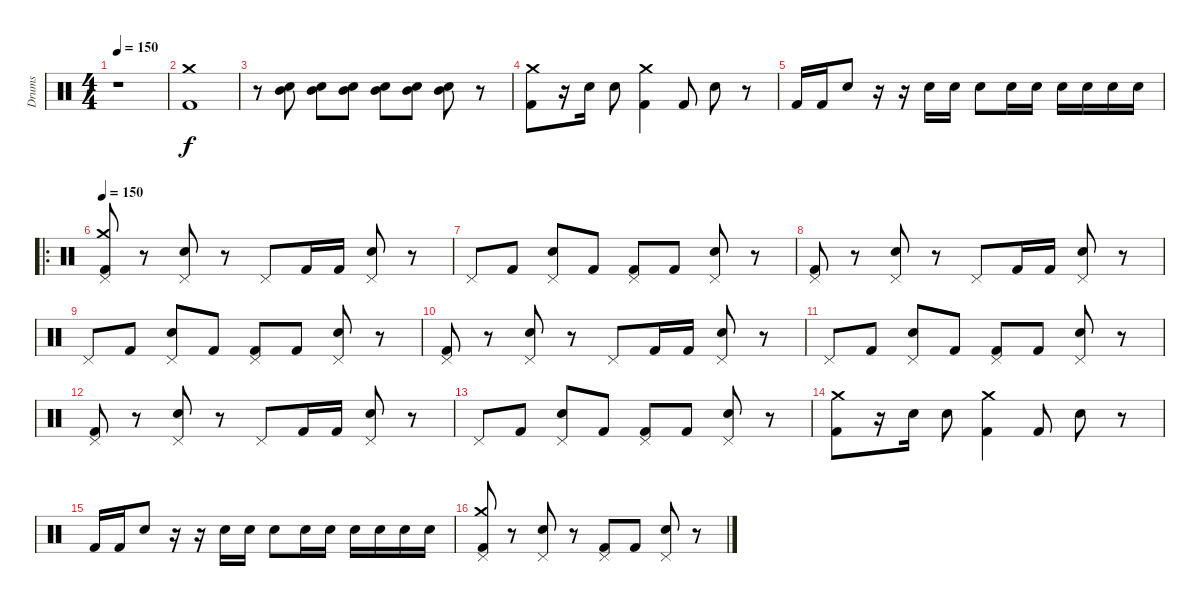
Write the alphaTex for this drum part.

\track ("Drums" "Drums") {instrument percussion}
\staff {score}
\articulation defaults
\ts (4 4)
\tempo 150
\clef neutral
\ks c
r.1{dy f} |
("Kick (hit) 2" "Crash medium (hit)").1 |
r.8 ("Mid Tom (hit)" "Electric Snare (hit)").8 ("Mid Tom (hit)" "Electric Snare (hit)").8 ("Mid Tom (hit)" "Electric Snare (hit)").8 ("Mid Tom (hit)" "Electric Snare (hit)").8 ("Mid Tom (hit)" "Electric Snare (hit)").8 ("Mid Tom (hit)" "Electric Snare (hit)").8 r.8 |
("Kick (hit) 2" "Crash medium (hit)").8 r.16 "Electric Snare (hit)".16 "Electric Snare (hit)".8 ("Kick (hit) 2" "Crash medium (hit)").4 "Kick (hit) 2".8 "Electric Snare (hit)".8 r.8 |
"Kick (hit) 2".16 "Kick (hit) 2".16 "Electric Snare (hit)".8 r.16 r.16 "Electric Snare (hit)".16 "Electric Snare (hit)".16 "Electric Snare (hit)".8 "Electric Snare (hit)".16 "Electric Snare (hit)".16 "Electric Snare (hit)".16 "Electric Snare (hit)".16 "Electric Snare (hit)".16 "Electric Snare (hit)".16 |
\ro
\tempo 150
("Kick (hit) 2" "Pedal Hi-Hat (hit)" "Crash medium (hit)").8 r.8 ("Pedal Hi-Hat (hit)" "Electric Snare (hit)").8 r.8 "Pedal Hi-Hat (hit)".8 "Kick (hit) 2".16 "Kick (hit) 2".16 ("Pedal Hi-Hat (hit)" "Electric Snare (hit)").8 r.8 |
"Pedal Hi-Hat (hit)".8 "Kick (hit) 2".8 ("Pedal Hi-Hat (hit)" "Electric Snare (hit)").8 "Kick (hit) 2".8 ("Kick (hit) 2" "Pedal Hi-Hat (hit)").8 "Kick (hit) 2".8 ("Pedal Hi-Hat (hit)" "Electric Snare (hit)").8 r.8 |
("Kick (hit) 2" "Pedal Hi-Hat (hit)").8 r.8 ("Pedal Hi-Hat (hit)" "Electric Snare (hit)").8 r.8 "Pedal Hi-Hat (hit)".8 "Kick (hit) 2".16 "Kick (hit) 2".16 ("Pedal Hi-Hat (hit)" "Electric Snare (hit)").8 r.8 |
"Pedal Hi-Hat (hit)".8 "Kick (hit) 2".8 ("Pedal Hi-Hat (hit)" "Electric Snare (hit)").8 "Kick (hit) 2".8 ("Kick (hit) 2" "Pedal Hi-Hat (hit)").8 "Kick (hit) 2".8 ("Pedal Hi-Hat (hit)" "Electric Snare (hit)").8 r.8 |
("Kick (hit) 2" "Pedal Hi-Hat (hit)").8 r.8 ("Pedal Hi-Hat (hit)" "Electric Snare (hit)").8 r.8 "Pedal Hi-Hat (hit)".8 "Kick (hit) 2".16 "Kick (hit) 2".16 ("Pedal Hi-Hat (hit)" "Electric Snare (hit)").8 r.8 |
"Pedal Hi-Hat (hit)".8 "Kick (hit) 2".8 ("Pedal Hi-Hat (hit)" "Electric Snare (hit)").8 "Kick (hit) 2".8 ("Kick (hit) 2" "Pedal Hi-Hat (hit)").8 "Kick (hit) 2".8 ("Pedal Hi-Hat (hit)" "Electric Snare (hit)").8 r.8 |
("Kick (hit) 2" "Pedal Hi-Hat (hit)").8 r.8 ("Pedal Hi-Hat (hit)" "Electric Snare (hit)").8 r.8 "Pedal Hi-Hat (hit)".8 "Kick (hit) 2".16 "Kick (hit) 2".16 ("Pedal Hi-Hat (hit)" "Electric Snare (hit)").8 r.8 |
"Pedal Hi-Hat (hit)".8 "Kick (hit) 2".8 ("Pedal Hi-Hat (hit)" "Electric Snare (hit)").8 "Kick (hit) 2".8 ("Kick (hit) 2" "Pedal Hi-Hat (hit)").8 "Kick (hit) 2".8 ("Pedal Hi-Hat (hit)" "Electric Snare (hit)").8 r.8 |
("Kick (hit) 2" "Crash medium (hit)").8 r.16 "Electric Snare (hit)".16 "Electric Snare (hit)".8 ("Kick (hit) 2" "Crash medium (hit)").4 "Kick (hit) 2".8 "Electric Snare (hit)".8 r.8 |
"Kick (hit) 2".16 "Kick (hit) 2".16 "Electric Snare (hit)".8 r.16 r.16 "Electric Snare (hit)".16 "Electric Snare (hit)".16 "Electric Snare (hit)".8 "Electric Snare (hit)".16 "Electric Snare (hit)".16 "Electric Snare (hit)".16 "Electric Snare (hit)".16 "Electric Snare (hit)".16 "Electric Snare (hit)".16 |
("Kick (hit) 2" "Pedal Hi-Hat (hit)" "Crash medium (hit)").8 r.8 ("Pedal Hi-Hat (hit)" "Electric Snare (hit)").8 r.8 ("Kick (hit) 2" "Pedal Hi-Hat (hit)").8 "Kick (hit) 2".8 ("Pedal Hi-Hat (hit)" "Electric Snare (hit)").8 r.8
